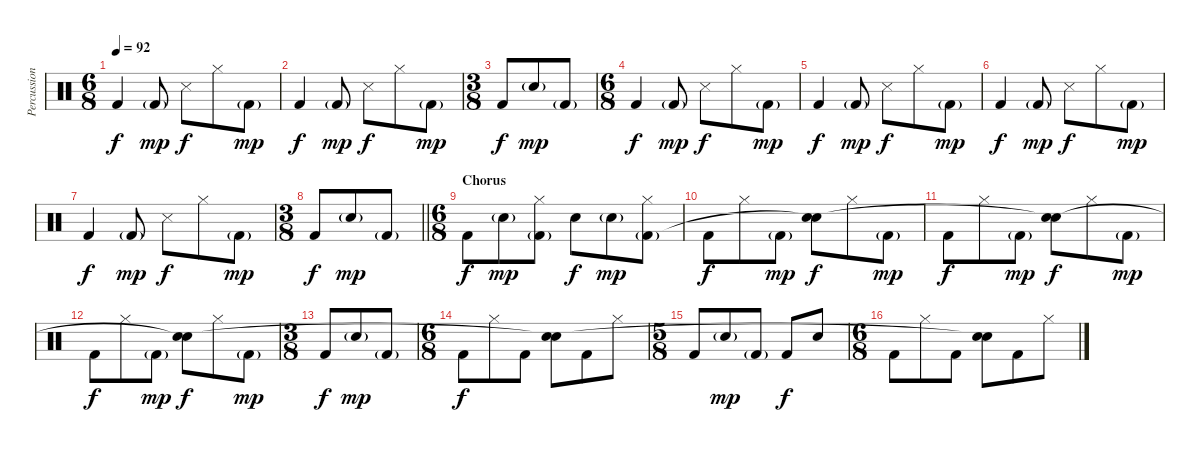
\track ("Percussion" "Percussion") {instrument percussion}
\staff {score}
\articulation defaults
\ts (6 8)
\tempo 92
\clef neutral
\ks c "Kick (hit) 2".4{dy f} "Kick (hit) 2"{g}.8{dy mp} "Snare (side stick) 3".8{dy f} "Hi-Hat (closed)".8 "Kick (hit) 2"{g}.8{dy mp}
|
"Kick (hit) 2".4{dy f} "Kick (hit) 2"{g}.8{dy mp} "Snare (side stick) 3".8{dy f} "Hi-Hat (closed)".8 "Kick (hit) 2"{g}.8{dy mp} |
\ts (3 8)
"Kick (hit) 2".8{dy f} "Snare (hit) 2"{g}.8{dy mp} "Kick (hit) 2"{g}.8 |
\ts (6 8)
"Kick (hit) 2".4{dy f} "Kick (hit) 2"{g}.8{dy mp} "Snare (side stick) 3".8{dy f} "Hi-Hat (closed)".8 "Kick (hit) 2"{g}.8{dy mp} |
"Kick (hit) 2".4{dy f} "Kick (hit) 2"{g}.8{dy mp} "Snare (side stick) 3".8{dy f} "Hi-Hat (closed)".8 "Kick (hit) 2"{g}.8{dy mp} |
"Kick (hit) 2".4{dy f} "Kick (hit) 2"{g}.8{dy mp} "Snare (side stick) 3".8{dy f} "Hi-Hat (closed)".8 "Kick (hit) 2"{g}.8{dy mp} |
"Kick (hit) 2".4{dy f} "Kick (hit) 2"{g}.8{dy mp} "Snare (side stick) 3".8{dy f} "Hi-Hat (closed)".8 "Kick (hit) 2"{g}.8{dy mp} |
\ts (3 8)
\barLineRight lightlight "Kick (hit) 2".8{dy f} "Snare (hit) 2"{g}.8{dy mp} "Kick (hit) 2"{g}.8
|
\ts (6 8)
\section ("" "Chorus")
"Kick (hit) 2".8{dy f} "Snare (hit) 2"{g}.8{dy mp} ("Hi-Hat (closed)" "Kick (hit) 2"{g}).8 "Snare (hit) 2".8{dy f} "Snare (hit) 2"{g}.8{dy mp} ("Hi-Hat (closed)" "Kick (hit) 2"{g}).8 |
"Kick (hit) 2".8{dy f} "Hi-Hat (closed)".8 "Kick (hit) 2"{g}.8{dy mp} ("Snare (hit) 2" "Snare (hit)"{t}).8{dy f} "Hi-Hat (closed)".8 "Kick (hit) 2"{g}.8{dy mp} |
"Kick (hit) 2".8{dy f} "Hi-Hat (closed)".8 "Kick (hit) 2"{g}.8{dy mp} ("Snare (hit) 2" "Snare (hit)"{t}).8{dy f} "Hi-Hat (closed)".8 "Kick (hit) 2"{g}.8{dy mp} |
"Kick (hit) 2".8{dy f} "Hi-Hat (closed)".8 "Kick (hit) 2"{g}.8{dy mp} ("Snare (hit) 2" "Snare (hit)"{t}).8{dy f} "Hi-Hat (closed)".8 "Kick (hit) 2"{g}.8{dy mp} |
\ts (3 8)
"Kick (hit) 2".8{dy f} "Snare (hit) 2"{g}.8{dy mp} "Kick (hit) 2"{g}.8 |
\ts (6 8)
"Kick (hit) 2".8{dy f} "Hi-Hat (closed)".8 "Kick (hit) 2".8 ("Snare (hit) 2" "Snare (hit)"{t}).8 "Kick (hit) 2".8 "Hi-Hat (closed)".8 |
\ts (5 8)
"Kick (hit) 2".8 "Snare (hit) 2"{g}.8{dy mp} "Kick (hit) 2"{g}.8 "Kick (hit) 2".8{dy f} "Snare (hit) 2".8 |
\ts (6 8)
"Kick (hit) 2".8 "Hi-Hat (closed)".8 "Kick (hit) 2".8 ("Snare (hit) 2" "Snare (hit)"{t}).8 "Kick (hit) 2".8 "Hi-Hat (closed)".8
